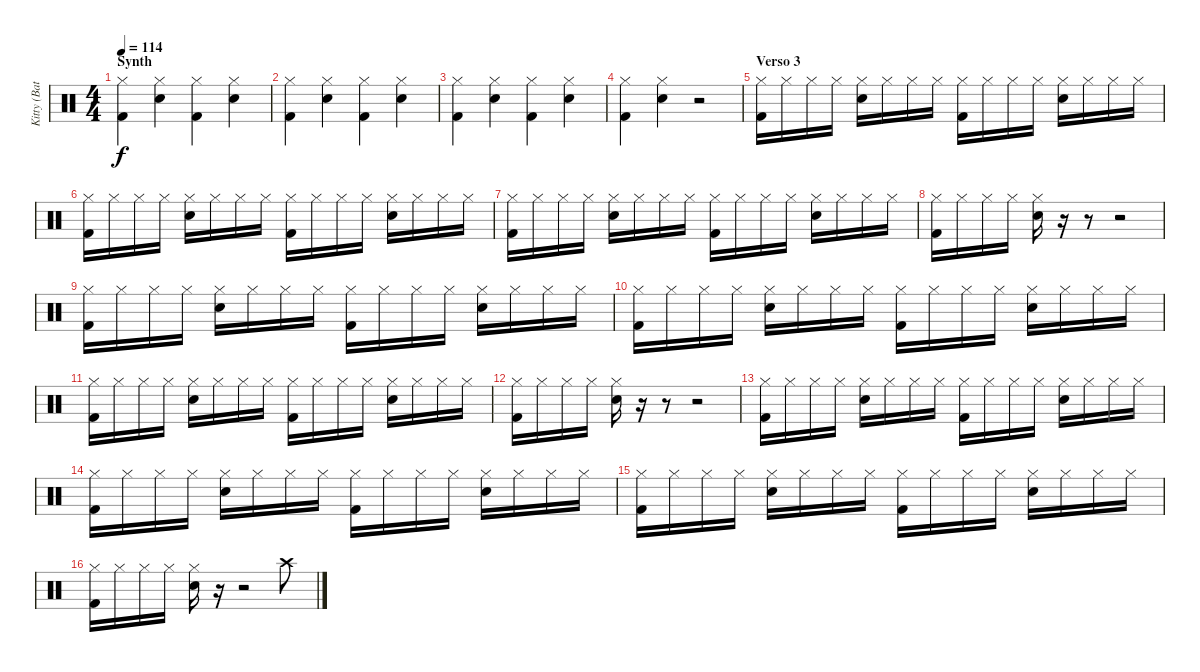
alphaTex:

\track ("Kitty (Bataca)" "Kitty (Bat") {instrument percussion}
\staff {score}
\articulation defaults
\ts (4 4)
\section ("" "Synth")
\tempo 114
\clef neutral
\ks c
("Hi-Hat (closed)" "Kick (hit) 2").4{dy f} ("Hi-Hat (closed)" "Snare (hit) 2").4 ("Hi-Hat (closed)" "Kick (hit) 2").4 ("Hi-Hat (closed)" "Snare (hit) 2").4 |
("Hi-Hat (closed)" "Kick (hit) 2").4 ("Hi-Hat (closed)" "Snare (hit) 2").4 ("Hi-Hat (closed)" "Kick (hit) 2").4 ("Hi-Hat (closed)" "Snare (hit) 2").4 |
("Hi-Hat (closed)" "Kick (hit) 2").4 ("Hi-Hat (closed)" "Snare (hit) 2").4 ("Hi-Hat (closed)" "Kick (hit) 2").4 ("Hi-Hat (closed)" "Snare (hit) 2").4 |
("Hi-Hat (closed)" "Kick (hit) 2").4 ("Hi-Hat (closed)" "Snare (hit) 2").4 r.2 |
\section ("" "Verso 3")
("Hi-Hat (closed)" "Kick (hit) 2").16 "Hi-Hat (closed)".16 "Hi-Hat (closed)".16 "Hi-Hat (closed)".16 ("Hi-Hat (closed)" "Snare (hit) 2").16 "Hi-Hat (closed)".16 "Hi-Hat (closed)".16 "Hi-Hat (closed)".16 ("Hi-Hat (closed)" "Kick (hit) 2").16 "Hi-Hat (closed)".16 "Hi-Hat (closed)".16 "Hi-Hat (closed)".16 ("Hi-Hat (closed)" "Snare (hit) 2").16 "Hi-Hat (closed)".16 "Hi-Hat (closed)".16 "Hi-Hat (closed)".16 |
("Hi-Hat (closed)" "Kick (hit) 2").16 "Hi-Hat (closed)".16 "Hi-Hat (closed)".16 "Hi-Hat (closed)".16 ("Hi-Hat (closed)" "Snare (hit) 2").16 "Hi-Hat (closed)".16 "Hi-Hat (closed)".16 "Hi-Hat (closed)".16 ("Hi-Hat (closed)" "Kick (hit) 2").16 "Hi-Hat (closed)".16 "Hi-Hat (closed)".16 "Hi-Hat (closed)".16 ("Hi-Hat (closed)" "Snare (hit) 2").16 "Hi-Hat (closed)".16 "Hi-Hat (closed)".16 "Hi-Hat (closed)".16 |
("Hi-Hat (closed)" "Kick (hit) 2").16 "Hi-Hat (closed)".16 "Hi-Hat (closed)".16 "Hi-Hat (closed)".16 ("Hi-Hat (closed)" "Snare (hit) 2").16 "Hi-Hat (closed)".16 "Hi-Hat (closed)".16 "Hi-Hat (closed)".16 ("Hi-Hat (closed)" "Kick (hit) 2").16 "Hi-Hat (closed)".16 "Hi-Hat (closed)".16 "Hi-Hat (closed)".16 ("Hi-Hat (closed)" "Snare (hit) 2").16 "Hi-Hat (closed)".16 "Hi-Hat (closed)".16 "Hi-Hat (closed)".16 |
("Hi-Hat (closed)" "Kick (hit) 2").16 "Hi-Hat (closed)".16 "Hi-Hat (closed)".16 "Hi-Hat (closed)".16 ("Hi-Hat (closed)" "Snare (hit) 2").16 r.16 r.8 r.2 |
("Hi-Hat (closed)" "Kick (hit) 2").16 "Hi-Hat (closed)".16 "Hi-Hat (closed)".16 "Hi-Hat (closed)".16 ("Hi-Hat (closed)" "Snare (hit) 2").16 "Hi-Hat (closed)".16 "Hi-Hat (closed)".16 "Hi-Hat (closed)".16 ("Hi-Hat (closed)" "Kick (hit) 2").16 "Hi-Hat (closed)".16 "Hi-Hat (closed)".16 "Hi-Hat (closed)".16 ("Hi-Hat (closed)" "Snare (hit) 2").16 "Hi-Hat (closed)".16 "Hi-Hat (closed)".16 "Hi-Hat (closed)".16 |
("Hi-Hat (closed)" "Kick (hit) 2").16 "Hi-Hat (closed)".16 "Hi-Hat (closed)".16 "Hi-Hat (closed)".16 ("Hi-Hat (closed)" "Snare (hit) 2").16 "Hi-Hat (closed)".16 "Hi-Hat (closed)".16 "Hi-Hat (closed)".16 ("Hi-Hat (closed)" "Kick (hit) 2").16 "Hi-Hat (closed)".16 "Hi-Hat (closed)".16 "Hi-Hat (closed)".16 ("Hi-Hat (closed)" "Snare (hit) 2").16 "Hi-Hat (closed)".16 "Hi-Hat (closed)".16 "Hi-Hat (closed)".16 |
("Hi-Hat (closed)" "Kick (hit) 2").16 "Hi-Hat (closed)".16 "Hi-Hat (closed)".16 "Hi-Hat (closed)".16 ("Hi-Hat (closed)" "Snare (hit) 2").16 "Hi-Hat (closed)".16 "Hi-Hat (closed)".16 "Hi-Hat (closed)".16 ("Hi-Hat (closed)" "Kick (hit) 2").16 "Hi-Hat (closed)".16 "Hi-Hat (closed)".16 "Hi-Hat (closed)".16 ("Hi-Hat (closed)" "Snare (hit) 2").16 "Hi-Hat (closed)".16 "Hi-Hat (closed)".16 "Hi-Hat (closed)".16 |
("Hi-Hat (closed)" "Kick (hit) 2").16 "Hi-Hat (closed)".16 "Hi-Hat (closed)".16 "Hi-Hat (closed)".16 ("Hi-Hat (closed)" "Snare (hit) 2").16 r.16 r.8 r.2 |
("Hi-Hat (closed)" "Kick (hit) 2").16 "Hi-Hat (closed)".16 "Hi-Hat (closed)".16 "Hi-Hat (closed)".16 ("Hi-Hat (closed)" "Snare (hit) 2").16 "Hi-Hat (closed)".16 "Hi-Hat (closed)".16 "Hi-Hat (closed)".16 ("Hi-Hat (closed)" "Kick (hit) 2").16 "Hi-Hat (closed)".16 "Hi-Hat (closed)".16 "Hi-Hat (closed)".16 ("Hi-Hat (closed)" "Snare (hit) 2").16 "Hi-Hat (closed)".16 "Hi-Hat (closed)".16 "Hi-Hat (closed)".16 |
("Hi-Hat (closed)" "Kick (hit) 2").16 "Hi-Hat (closed)".16 "Hi-Hat (closed)".16 "Hi-Hat (closed)".16 ("Hi-Hat (closed)" "Snare (hit) 2").16 "Hi-Hat (closed)".16 "Hi-Hat (closed)".16 "Hi-Hat (closed)".16 ("Hi-Hat (closed)" "Kick (hit) 2").16 "Hi-Hat (closed)".16 "Hi-Hat (closed)".16 "Hi-Hat (closed)".16 ("Hi-Hat (closed)" "Snare (hit) 2").16 "Hi-Hat (closed)".16 "Hi-Hat (closed)".16 "Hi-Hat (closed)".16 |
("Hi-Hat (closed)" "Kick (hit) 2").16 "Hi-Hat (closed)".16 "Hi-Hat (closed)".16 "Hi-Hat (closed)".16 ("Hi-Hat (closed)" "Snare (hit) 2").16 "Hi-Hat (closed)".16 "Hi-Hat (closed)".16 "Hi-Hat (closed)".16 ("Hi-Hat (closed)" "Kick (hit) 2").16 "Hi-Hat (closed)".16 "Hi-Hat (closed)".16 "Hi-Hat (closed)".16 ("Hi-Hat (closed)" "Snare (hit) 2").16 "Hi-Hat (closed)".16 "Hi-Hat (closed)".16 "Hi-Hat (closed)".16 |
("Hi-Hat (closed)" "Kick (hit) 2").16 "Hi-Hat (closed)".16 "Hi-Hat (closed)".16 "Hi-Hat (closed)".16 ("Hi-Hat (closed)" "Snare (hit) 2").16 r.16 r.2 "Crash high (hit)".8
